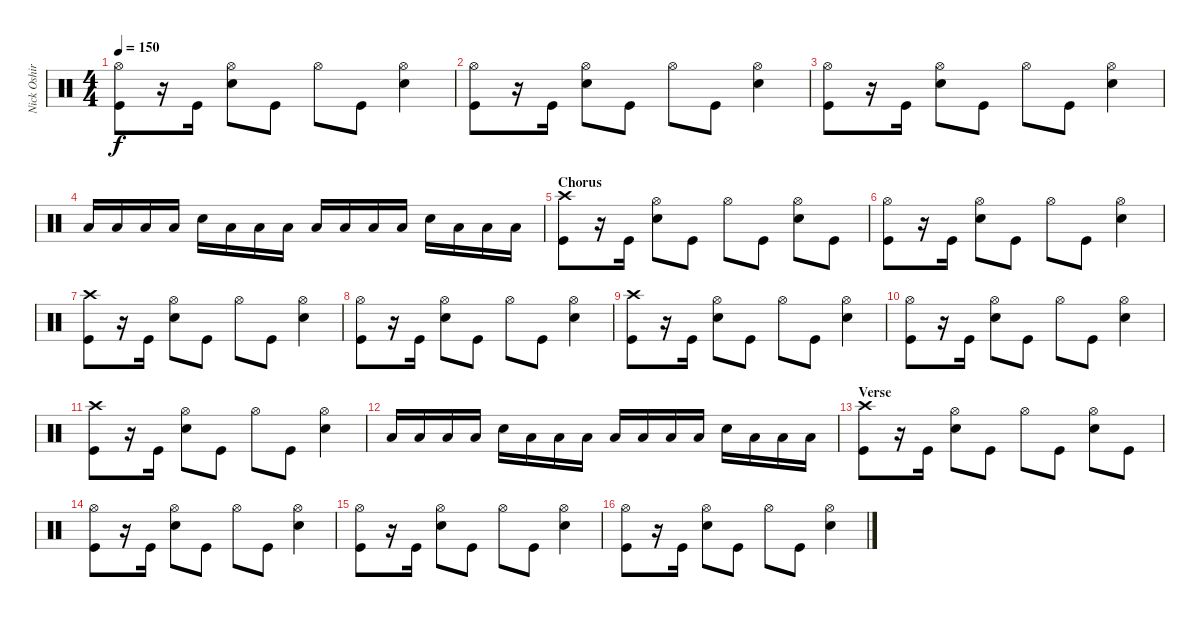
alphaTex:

\track ("Nick Oshiro" "Nick Oshir") {instrument percussion}
\staff {score}
\articulation defaults
\ts (4 4)
\tempo 150
\clef neutral
\ks c
("Hi-Hat (open)" "Kick (hit)").8{dy f} r.16 "Kick (hit)".16 ("Hi-Hat (open)" "Snare (hit) 2").8 "Kick (hit)".8 "Hi-Hat (open)".8 "Kick (hit)".8 ("Hi-Hat (open)" "Snare (hit) 2").4 |
("Hi-Hat (open)" "Kick (hit)").8 r.16 "Kick (hit)".16 ("Hi-Hat (open)" "Snare (hit) 2").8 "Kick (hit)".8 "Hi-Hat (open)".8 "Kick (hit)".8 ("Hi-Hat (open)" "Snare (hit) 2").4 |
("Hi-Hat (open)" "Kick (hit)").8 r.16 "Kick (hit)".16 ("Hi-Hat (open)" "Snare (hit) 2").8 "Kick (hit)".8 "Hi-Hat (open)".8 "Kick (hit)".8 ("Hi-Hat (open)" "Snare (hit) 2").4 |
"Low Tom (hit)".16 "Low Tom (hit)".16 "Low Tom (hit)".16 "Low Tom (hit)".16 "Snare (hit) 2".16 "Low Tom (hit)".16 "Low Tom (hit)".16 "Low Tom (hit)".16 "Low Tom (hit)".16 "Low Tom (hit)".16 "Low Tom (hit)".16 "Low Tom (hit)".16 "Snare (hit) 2".16 "Low Tom (hit)".16 "Low Tom (hit)".16 "Low Tom (hit)".16 |
\section ("" "Chorus")
("Crash high (hit)" "Kick (hit)").8 r.16 "Kick (hit)".16 ("Hi-Hat (open)" "Snare (hit) 2").8 "Kick (hit)".8 "Hi-Hat (open)".8 "Kick (hit)".8 ("Hi-Hat (open)" "Snare (hit) 2").8 "Kick (hit)".8 |
("Hi-Hat (open)" "Kick (hit)").8 r.16 "Kick (hit)".16 ("Hi-Hat (open)" "Snare (hit) 2").8 "Kick (hit)".8 "Hi-Hat (open)".8 "Kick (hit)".8 ("Hi-Hat (open)" "Snare (hit) 2").4 |
("Crash high (hit)" "Kick (hit)").8 r.16 "Kick (hit)".16 ("Hi-Hat (open)" "Snare (hit) 2").8 "Kick (hit)".8 "Hi-Hat (open)".8 "Kick (hit)".8 ("Hi-Hat (open)" "Snare (hit) 2").4 |
("Hi-Hat (open)" "Kick (hit)").8 r.16 "Kick (hit)".16 ("Hi-Hat (open)" "Snare (hit) 2").8 "Kick (hit)".8 "Hi-Hat (open)".8 "Kick (hit)".8 ("Hi-Hat (open)" "Snare (hit) 2").4 |
("Crash high (hit)" "Kick (hit)").8 r.16 "Kick (hit)".16 ("Hi-Hat (open)" "Snare (hit) 2").8 "Kick (hit)".8 "Hi-Hat (open)".8 "Kick (hit)".8 ("Hi-Hat (open)" "Snare (hit) 2").4 |
("Hi-Hat (open)" "Kick (hit)").8 r.16 "Kick (hit)".16 ("Hi-Hat (open)" "Snare (hit) 2").8 "Kick (hit)".8 "Hi-Hat (open)".8 "Kick (hit)".8 ("Hi-Hat (open)" "Snare (hit) 2").4 |
("Crash high (hit)" "Kick (hit)").8 r.16 "Kick (hit)".16 ("Hi-Hat (open)" "Snare (hit) 2").8 "Kick (hit)".8 "Hi-Hat (open)".8 "Kick (hit)".8 ("Hi-Hat (open)" "Snare (hit) 2").4 |
"Low Tom (hit)".16 "Low Tom (hit)".16 "Low Tom (hit)".16 "Low Tom (hit)".16 "Snare (hit) 2".16 "Low Tom (hit)".16 "Low Tom (hit)".16 "Low Tom (hit)".16 "Low Tom (hit)".16 "Low Tom (hit)".16 "Low Tom (hit)".16 "Low Tom (hit)".16 "Snare (hit) 2".16 "Low Tom (hit)".16 "Low Tom (hit)".16 "Low Tom (hit)".16 |
\section ("" "Verse")
("Crash high (hit)" "Kick (hit)").8 r.16 "Kick (hit)".16 ("Hi-Hat (open)" "Snare (hit) 2").8 "Kick (hit)".8 "Hi-Hat (open)".8 "Kick (hit)".8 ("Hi-Hat (open)" "Snare (hit) 2").8 "Kick (hit)".8 |
("Hi-Hat (open)" "Kick (hit)").8 r.16 "Kick (hit)".16 ("Hi-Hat (open)" "Snare (hit) 2").8 "Kick (hit)".8 "Hi-Hat (open)".8 "Kick (hit)".8 ("Hi-Hat (open)" "Snare (hit) 2").4 |
("Hi-Hat (open)" "Kick (hit)").8 r.16 "Kick (hit)".16 ("Hi-Hat (open)" "Snare (hit) 2").8 "Kick (hit)".8 "Hi-Hat (open)".8 "Kick (hit)".8 ("Hi-Hat (open)" "Snare (hit) 2").4 |
("Hi-Hat (open)" "Kick (hit)").8 r.16 "Kick (hit)".16 ("Hi-Hat (open)" "Snare (hit) 2").8 "Kick (hit)".8 "Hi-Hat (open)".8 "Kick (hit)".8 ("Hi-Hat (open)" "Snare (hit) 2").4
